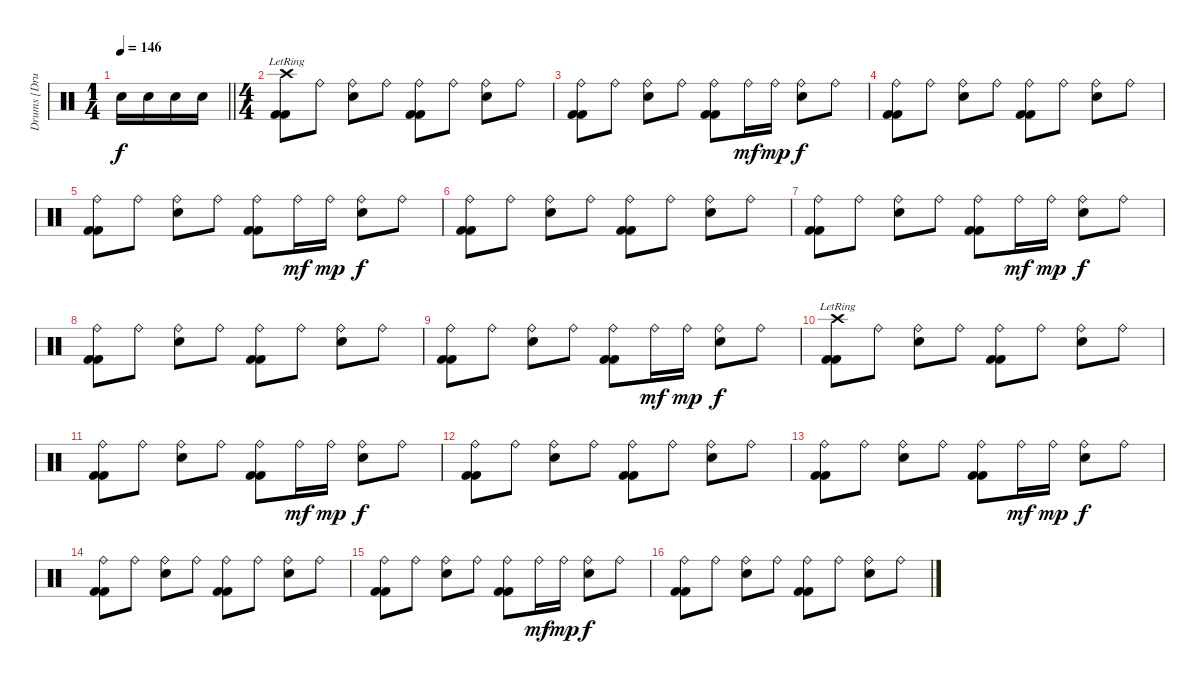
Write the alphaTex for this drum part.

\track ("Drums [Drums]" "Drums [Dru") {instrument percussion}
\staff {score}
\articulation defaults
\ts (1 4)
\tempo 146
\clef neutral
\barLineRight lightlight
\ks c "Snare (hit) 2".16{dy f} "Snare (hit) 2".16 "Snare (hit) 2".16 "Snare (hit) 2".16
|
\ts (4 4)
("Crash high (hit)"{lr} "Kick (hit) 2" "Kick (hit) 2").8 "Ride (bell)".8 ("Ride (bell)" "Snare (hit) 2").8 "Ride (bell)".8 ("Ride (bell)" "Kick (hit) 2" "Kick (hit) 2").8 "Ride (bell)".8 ("Ride (bell)" "Snare (hit) 2").8 "Ride (bell)".8 |
("Ride (bell)" "Kick (hit) 2" "Kick (hit) 2").8 "Ride (bell)".8 ("Ride (bell)" "Snare (hit) 2").8 "Ride (bell)".8 ("Ride (bell)" "Kick (hit) 2" "Kick (hit) 2").8 "Ride (bell)".16{dy mf} "Ride (bell)".16{dy mp} ("Ride (bell)" "Snare (hit) 2").8{dy f} "Ride (bell)".8 |
("Ride (bell)" "Kick (hit) 2" "Kick (hit) 2").8 "Ride (bell)".8 ("Ride (bell)" "Snare (hit) 2").8 "Ride (bell)".8 ("Ride (bell)" "Kick (hit) 2" "Kick (hit) 2").8 "Ride (bell)".8 ("Ride (bell)" "Snare (hit) 2").8 "Ride (bell)".8 |
("Ride (bell)" "Kick (hit) 2" "Kick (hit) 2").8 "Ride (bell)".8 ("Ride (bell)" "Snare (hit) 2").8 "Ride (bell)".8 ("Ride (bell)" "Kick (hit) 2" "Kick (hit) 2").8 "Ride (bell)".16{dy mf} "Ride (bell)".16{dy mp} ("Ride (bell)" "Snare (hit) 2").8{dy f} "Ride (bell)".8 |
("Ride (bell)" "Kick (hit) 2" "Kick (hit) 2").8 "Ride (bell)".8 ("Ride (bell)" "Snare (hit) 2").8 "Ride (bell)".8 ("Ride (bell)" "Kick (hit) 2" "Kick (hit) 2").8 "Ride (bell)".8 ("Ride (bell)" "Snare (hit) 2").8 "Ride (bell)".8 |
("Ride (bell)" "Kick (hit) 2" "Kick (hit) 2").8 "Ride (bell)".8 ("Ride (bell)" "Snare (hit) 2").8 "Ride (bell)".8 ("Ride (bell)" "Kick (hit) 2" "Kick (hit) 2").8 "Ride (bell)".16{dy mf} "Ride (bell)".16{dy mp} ("Ride (bell)" "Snare (hit) 2").8{dy f} "Ride (bell)".8 |
("Ride (bell)" "Kick (hit) 2" "Kick (hit) 2").8 "Ride (bell)".8 ("Ride (bell)" "Snare (hit) 2").8 "Ride (bell)".8 ("Ride (bell)" "Kick (hit) 2" "Kick (hit) 2").8 "Ride (bell)".8 ("Ride (bell)" "Snare (hit) 2").8 "Ride (bell)".8 |
("Ride (bell)" "Kick (hit) 2" "Kick (hit) 2").8 "Ride (bell)".8 ("Ride (bell)" "Snare (hit) 2").8 "Ride (bell)".8 ("Ride (bell)" "Kick (hit) 2" "Kick (hit) 2").8 "Ride (bell)".16{dy mf} "Ride (bell)".16{dy mp} ("Ride (bell)" "Snare (hit) 2").8{dy f} "Ride (bell)".8 |
("Crash high (hit)"{lr} "Kick (hit) 2" "Kick (hit) 2").8 "Ride (bell)".8 ("Ride (bell)" "Snare (hit) 2").8 "Ride (bell)".8 ("Ride (bell)" "Kick (hit) 2" "Kick (hit) 2").8 "Ride (bell)".8 ("Ride (bell)" "Snare (hit) 2").8 "Ride (bell)".8 |
("Ride (bell)" "Kick (hit) 2" "Kick (hit) 2").8 "Ride (bell)".8 ("Ride (bell)" "Snare (hit) 2").8 "Ride (bell)".8 ("Ride (bell)" "Kick (hit) 2" "Kick (hit) 2").8 "Ride (bell)".16{dy mf} "Ride (bell)".16{dy mp} ("Ride (bell)" "Snare (hit) 2").8{dy f} "Ride (bell)".8 |
("Ride (bell)" "Kick (hit) 2" "Kick (hit) 2").8 "Ride (bell)".8 ("Ride (bell)" "Snare (hit) 2").8 "Ride (bell)".8 ("Ride (bell)" "Kick (hit) 2" "Kick (hit) 2").8 "Ride (bell)".8 ("Ride (bell)" "Snare (hit) 2").8 "Ride (bell)".8 |
("Ride (bell)" "Kick (hit) 2" "Kick (hit) 2").8 "Ride (bell)".8 ("Ride (bell)" "Snare (hit) 2").8 "Ride (bell)".8 ("Ride (bell)" "Kick (hit) 2" "Kick (hit) 2").8 "Ride (bell)".16{dy mf} "Ride (bell)".16{dy mp} ("Ride (bell)" "Snare (hit) 2").8{dy f} "Ride (bell)".8 |
("Ride (bell)" "Kick (hit) 2" "Kick (hit) 2").8 "Ride (bell)".8 ("Ride (bell)" "Snare (hit) 2").8 "Ride (bell)".8 ("Ride (bell)" "Kick (hit) 2" "Kick (hit) 2").8 "Ride (bell)".8 ("Ride (bell)" "Snare (hit) 2").8 "Ride (bell)".8 |
("Ride (bell)" "Kick (hit) 2" "Kick (hit) 2").8 "Ride (bell)".8 ("Ride (bell)" "Snare (hit) 2").8 "Ride (bell)".8 ("Ride (bell)" "Kick (hit) 2" "Kick (hit) 2").8 "Ride (bell)".16{dy mf} "Ride (bell)".16{dy mp} ("Ride (bell)" "Snare (hit) 2").8{dy f} "Ride (bell)".8 |
("Ride (bell)" "Kick (hit) 2" "Kick (hit) 2").8 "Ride (bell)".8 ("Ride (bell)" "Snare (hit) 2").8 "Ride (bell)".8 ("Ride (bell)" "Kick (hit) 2" "Kick (hit) 2").8 "Ride (bell)".8 ("Ride (bell)" "Snare (hit) 2").8 "Ride (bell)".8
